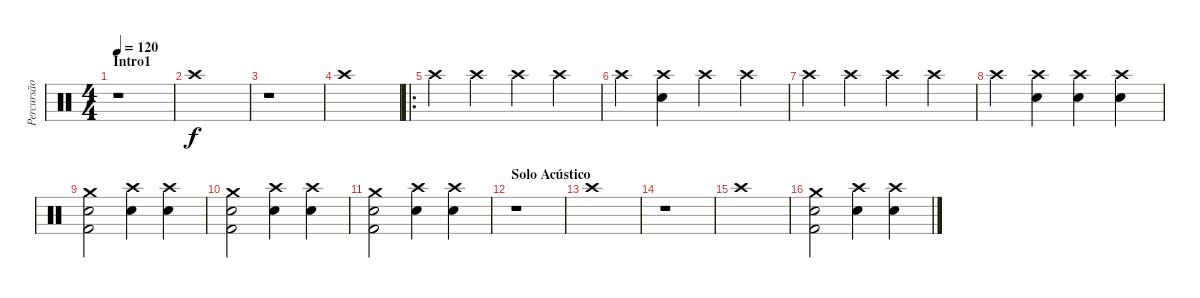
\track ("Percursão" "Percursão") {instrument percussion}
\staff {score}
\articulation defaults
\ts (4 4)
\section ("" "Intro1")
\tempo 120
\clef neutral
\ks c
r.1{dy f} |
"Crash high (hit)".1 |
r.1 |
"Crash high (hit)".1 |
\ro "Crash high (hit)".4 "Crash high (hit)".4 "Crash high (hit)".4 "Crash high (hit)".4
|
"Crash high (hit)".4 ("Snare (hit) 2" "Crash high (hit)").4 "Crash high (hit)".4 "Crash high (hit)".4 |
"Crash high (hit)".4 "Crash high (hit)".4 "Crash high (hit)".4 "Crash high (hit)".4 |
"Crash high (hit)".4 ("Snare (hit) 2" "Crash high (hit)").4 ("Snare (hit) 2" "Crash high (hit)").4 ("Snare (hit) 2" "Crash high (hit)").4 |
("Kick (hit) 2" "Snare (hit) 2" "Crash medium (hit)").2 ("Snare (hit) 2" "Crash high (hit)").4 ("Snare (hit) 2" "Crash high (hit)").4 |
("Kick (hit) 2" "Snare (hit) 2" "Crash medium (hit)").2 ("Snare (hit) 2" "Crash high (hit)").4 ("Snare (hit) 2" "Crash high (hit)").4 |
("Kick (hit) 2" "Snare (hit) 2" "Crash medium (hit)").2 ("Snare (hit) 2" "Crash high (hit)").4 ("Snare (hit) 2" "Crash high (hit)").4 |
\section ("" "Solo Acústico")
r.1 |
"Crash high (hit)".1 |
r.1 |
"Crash high (hit)".1 |
("Kick (hit) 2" "Snare (hit) 2" "Crash medium (hit)").2 ("Snare (hit) 2" "Crash high (hit)").4 ("Snare (hit) 2" "Crash high (hit)").4
